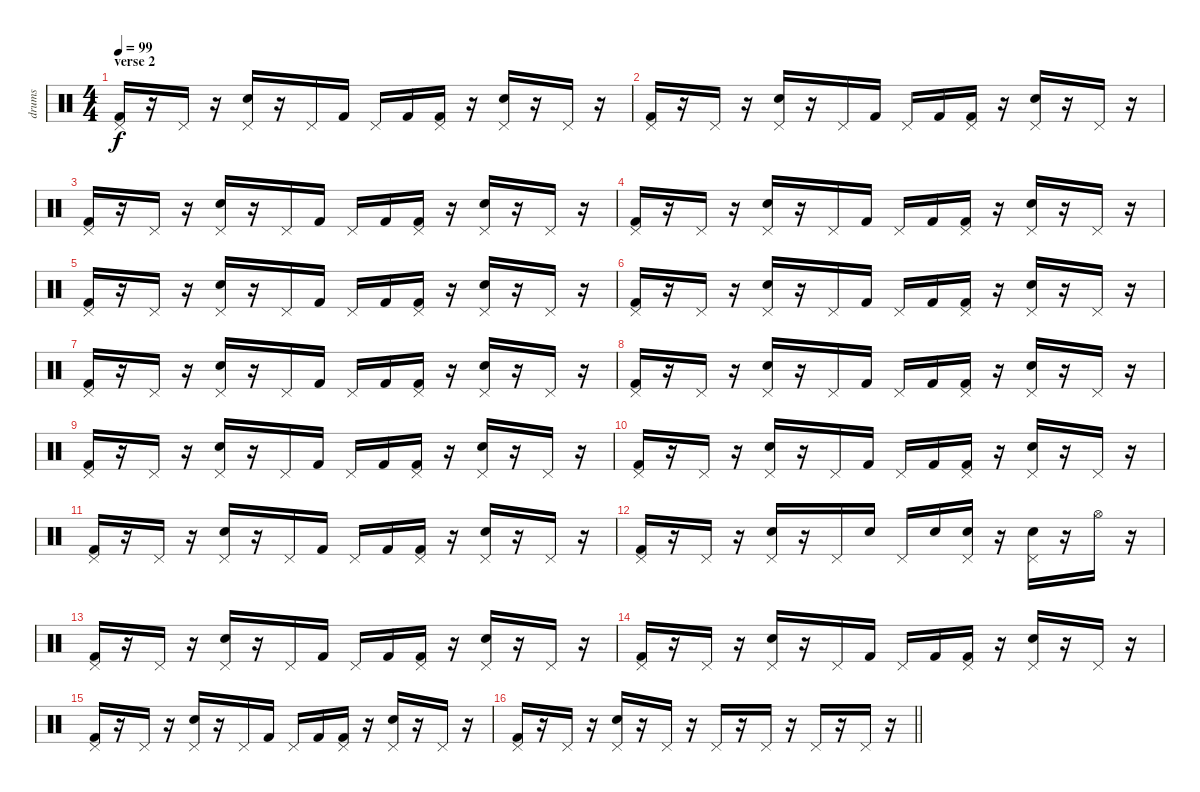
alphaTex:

\track ("drums" "drums") {instrument percussion}
\staff {score}
\articulation defaults
\ts (4 4)
\section ("" "verse 2")
\tempo 99
\clef neutral
\ks c
("Kick (hit) 2" "Pedal Hi-Hat (hit)").16{dy f} r.16 "Pedal Hi-Hat (hit)".16 r.16 ("Snare (hit) 2" "Pedal Hi-Hat (hit)").16 r.16 "Pedal Hi-Hat (hit)".16 "Kick (hit) 2".16 "Pedal Hi-Hat (hit)".16 "Kick (hit) 2".16 ("Kick (hit) 2" "Pedal Hi-Hat (hit)").16 r.16 ("Snare (hit) 2" "Pedal Hi-Hat (hit)").16 r.16 "Pedal Hi-Hat (hit)".16 r.16 |
("Kick (hit) 2" "Pedal Hi-Hat (hit)").16 r.16 "Pedal Hi-Hat (hit)".16 r.16 ("Snare (hit) 2" "Pedal Hi-Hat (hit)").16 r.16 "Pedal Hi-Hat (hit)".16 "Kick (hit) 2".16 "Pedal Hi-Hat (hit)".16 "Kick (hit) 2".16 ("Kick (hit) 2" "Pedal Hi-Hat (hit)").16 r.16 ("Snare (hit) 2" "Pedal Hi-Hat (hit)").16 r.16 "Pedal Hi-Hat (hit)".16 r.16 |
("Kick (hit) 2" "Pedal Hi-Hat (hit)").16 r.16 "Pedal Hi-Hat (hit)".16 r.16 ("Snare (hit) 2" "Pedal Hi-Hat (hit)").16 r.16 "Pedal Hi-Hat (hit)".16 "Kick (hit) 2".16 "Pedal Hi-Hat (hit)".16 "Kick (hit) 2".16 ("Kick (hit) 2" "Pedal Hi-Hat (hit)").16 r.16 ("Snare (hit) 2" "Pedal Hi-Hat (hit)").16 r.16 "Pedal Hi-Hat (hit)".16 r.16 |
("Kick (hit) 2" "Pedal Hi-Hat (hit)").16 r.16 "Pedal Hi-Hat (hit)".16 r.16 ("Snare (hit) 2" "Pedal Hi-Hat (hit)").16 r.16 "Pedal Hi-Hat (hit)".16 "Kick (hit) 2".16 "Pedal Hi-Hat (hit)".16 "Kick (hit) 2".16 ("Kick (hit) 2" "Pedal Hi-Hat (hit)").16 r.16 ("Snare (hit) 2" "Pedal Hi-Hat (hit)").16 r.16 "Pedal Hi-Hat (hit)".16 r.16 |
("Kick (hit) 2" "Pedal Hi-Hat (hit)").16 r.16 "Pedal Hi-Hat (hit)".16 r.16 ("Snare (hit) 2" "Pedal Hi-Hat (hit)").16 r.16 "Pedal Hi-Hat (hit)".16 "Kick (hit) 2".16 "Pedal Hi-Hat (hit)".16 "Kick (hit) 2".16 ("Kick (hit) 2" "Pedal Hi-Hat (hit)").16 r.16 ("Snare (hit) 2" "Pedal Hi-Hat (hit)").16 r.16 "Pedal Hi-Hat (hit)".16 r.16 |
("Kick (hit) 2" "Pedal Hi-Hat (hit)").16 r.16 "Pedal Hi-Hat (hit)".16 r.16 ("Snare (hit) 2" "Pedal Hi-Hat (hit)").16 r.16 "Pedal Hi-Hat (hit)".16 "Kick (hit) 2".16 "Pedal Hi-Hat (hit)".16 "Kick (hit) 2".16 ("Kick (hit) 2" "Pedal Hi-Hat (hit)").16 r.16 ("Snare (hit) 2" "Pedal Hi-Hat (hit)").16 r.16 "Pedal Hi-Hat (hit)".16 r.16 |
("Kick (hit) 2" "Pedal Hi-Hat (hit)").16 r.16 "Pedal Hi-Hat (hit)".16 r.16 ("Snare (hit) 2" "Pedal Hi-Hat (hit)").16 r.16 "Pedal Hi-Hat (hit)".16 "Kick (hit) 2".16 "Pedal Hi-Hat (hit)".16 "Kick (hit) 2".16 ("Kick (hit) 2" "Pedal Hi-Hat (hit)").16 r.16 ("Snare (hit) 2" "Pedal Hi-Hat (hit)").16 r.16 "Pedal Hi-Hat (hit)".16 r.16 |
("Kick (hit) 2" "Pedal Hi-Hat (hit)").16 r.16 "Pedal Hi-Hat (hit)".16 r.16 ("Snare (hit) 2" "Pedal Hi-Hat (hit)").16 r.16 "Pedal Hi-Hat (hit)".16 "Kick (hit) 2".16 "Pedal Hi-Hat (hit)".16 "Kick (hit) 2".16 ("Kick (hit) 2" "Pedal Hi-Hat (hit)").16 r.16 ("Snare (hit) 2" "Pedal Hi-Hat (hit)").16 r.16 "Pedal Hi-Hat (hit)".16 r.16 |
("Kick (hit) 2" "Pedal Hi-Hat (hit)").16 r.16 "Pedal Hi-Hat (hit)".16 r.16 ("Snare (hit) 2" "Pedal Hi-Hat (hit)").16 r.16 "Pedal Hi-Hat (hit)".16 "Kick (hit) 2".16 "Pedal Hi-Hat (hit)".16 "Kick (hit) 2".16 ("Kick (hit) 2" "Pedal Hi-Hat (hit)").16 r.16 ("Snare (hit) 2" "Pedal Hi-Hat (hit)").16 r.16 "Pedal Hi-Hat (hit)".16 r.16 |
("Kick (hit) 2" "Pedal Hi-Hat (hit)").16 r.16 "Pedal Hi-Hat (hit)".16 r.16 ("Snare (hit) 2" "Pedal Hi-Hat (hit)").16 r.16 "Pedal Hi-Hat (hit)".16 "Kick (hit) 2".16 "Pedal Hi-Hat (hit)".16 "Kick (hit) 2".16 ("Kick (hit) 2" "Pedal Hi-Hat (hit)").16 r.16 ("Snare (hit) 2" "Pedal Hi-Hat (hit)").16 r.16 "Pedal Hi-Hat (hit)".16 r.16 |
("Kick (hit) 2" "Pedal Hi-Hat (hit)").16 r.16 "Pedal Hi-Hat (hit)".16 r.16 ("Snare (hit) 2" "Pedal Hi-Hat (hit)").16 r.16 "Pedal Hi-Hat (hit)".16 "Kick (hit) 2".16 "Pedal Hi-Hat (hit)".16 "Kick (hit) 2".16 ("Kick (hit) 2" "Pedal Hi-Hat (hit)").16 r.16 ("Snare (hit) 2" "Pedal Hi-Hat (hit)").16 r.16 "Pedal Hi-Hat (hit)".16 r.16 |
("Kick (hit) 2" "Pedal Hi-Hat (hit)").16 r.16 "Pedal Hi-Hat (hit)".16 r.16 ("Snare (hit) 2" "Pedal Hi-Hat (hit)").16 r.16 "Pedal Hi-Hat (hit)".16 "Snare (hit) 2".16 "Pedal Hi-Hat (hit)".16 "Snare (hit) 2".16 ("Snare (hit) 2" "Pedal Hi-Hat (hit)").16 r.16 ("Snare (hit) 2" "Pedal Hi-Hat (hit)").16 r.16 "Hi-Hat (open)".16 r.16 |
("Kick (hit) 2" "Pedal Hi-Hat (hit)").16 r.16 "Pedal Hi-Hat (hit)".16 r.16 ("Snare (hit) 2" "Pedal Hi-Hat (hit)").16 r.16 "Pedal Hi-Hat (hit)".16 "Kick (hit) 2".16 "Pedal Hi-Hat (hit)".16 "Kick (hit) 2".16 ("Kick (hit) 2" "Pedal Hi-Hat (hit)").16 r.16 ("Snare (hit) 2" "Pedal Hi-Hat (hit)").16 r.16 "Pedal Hi-Hat (hit)".16 r.16 |
("Kick (hit) 2" "Pedal Hi-Hat (hit)").16 r.16 "Pedal Hi-Hat (hit)".16 r.16 ("Snare (hit) 2" "Pedal Hi-Hat (hit)").16 r.16 "Pedal Hi-Hat (hit)".16 "Kick (hit) 2".16 "Pedal Hi-Hat (hit)".16 "Kick (hit) 2".16 ("Kick (hit) 2" "Pedal Hi-Hat (hit)").16 r.16 ("Snare (hit) 2" "Pedal Hi-Hat (hit)").16 r.16 "Pedal Hi-Hat (hit)".16 r.16 |
("Kick (hit) 2" "Pedal Hi-Hat (hit)").16 r.16 "Pedal Hi-Hat (hit)".16 r.16 ("Snare (hit) 2" "Pedal Hi-Hat (hit)").16 r.16 "Pedal Hi-Hat (hit)".16 "Kick (hit) 2".16 "Pedal Hi-Hat (hit)".16 "Kick (hit) 2".16 ("Kick (hit) 2" "Pedal Hi-Hat (hit)").16 r.16 ("Snare (hit) 2" "Pedal Hi-Hat (hit)").16 r.16 "Pedal Hi-Hat (hit)".16 r.16 |
\barLineRight lightlight
("Kick (hit) 2" "Pedal Hi-Hat (hit)").16 r.16 "Pedal Hi-Hat (hit)".16 r.16 ("Snare (hit) 2" "Pedal Hi-Hat (hit)").16 r.16 "Pedal Hi-Hat (hit)".16 r.16 "Pedal Hi-Hat (hit)".16 r.16 "Pedal Hi-Hat (hit)".16 r.16 "Pedal Hi-Hat (hit)".16 r.16 "Pedal Hi-Hat (hit)".16 r.16
